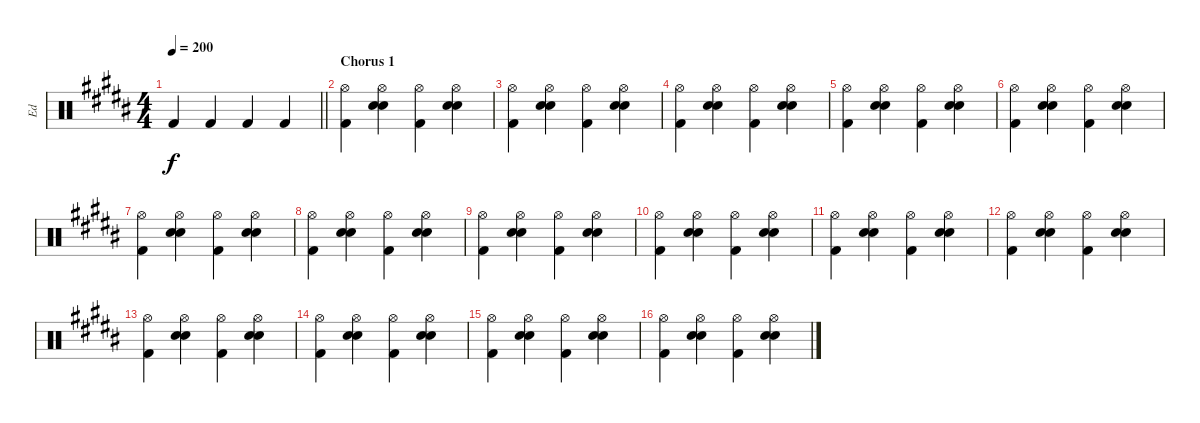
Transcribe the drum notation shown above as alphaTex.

\track ("Ed" "Ed") {instrument percussion bank 127}
\staff {score}
\articulation defaults
\ts (4 4)
\tempo 200
\clef neutral
\barLineRight lightlight
\ks g#minor "Kick (hit) 2".4{dy f} "Kick (hit) 2".4 "Kick (hit) 2".4 "Kick (hit) 2".4
|
\section ("" "Chorus 1")
("Hi-Hat (open)" "Kick (hit) 2").4 ("Hi-Hat (open)" "Electric Snare (hit)" "Electric Snare (hit)").4 ("Hi-Hat (open)" "Kick (hit) 2").4 ("Hi-Hat (open)" "Electric Snare (hit)" "Electric Snare (hit)").4 |
("Hi-Hat (open)" "Kick (hit) 2").4 ("Hi-Hat (open)" "Electric Snare (hit)" "Electric Snare (hit)").4 ("Hi-Hat (open)" "Kick (hit) 2").4 ("Hi-Hat (open)" "Electric Snare (hit)" "Electric Snare (hit)").4 |
("Hi-Hat (open)" "Kick (hit) 2").4 ("Hi-Hat (open)" "Electric Snare (hit)" "Electric Snare (hit)").4 ("Hi-Hat (open)" "Kick (hit) 2").4 ("Hi-Hat (open)" "Electric Snare (hit)" "Electric Snare (hit)").4 |
("Hi-Hat (open)" "Kick (hit) 2").4 ("Hi-Hat (open)" "Electric Snare (hit)" "Electric Snare (hit)").4 ("Hi-Hat (open)" "Kick (hit) 2").4 ("Hi-Hat (open)" "Electric Snare (hit)" "Electric Snare (hit)").4 |
("Hi-Hat (open)" "Kick (hit) 2").4 ("Hi-Hat (open)" "Electric Snare (hit)" "Electric Snare (hit)").4 ("Hi-Hat (open)" "Kick (hit) 2").4 ("Hi-Hat (open)" "Electric Snare (hit)" "Electric Snare (hit)").4 |
("Hi-Hat (open)" "Kick (hit) 2").4 ("Hi-Hat (open)" "Electric Snare (hit)" "Electric Snare (hit)").4 ("Hi-Hat (open)" "Kick (hit) 2").4 ("Hi-Hat (open)" "Electric Snare (hit)" "Electric Snare (hit)").4 |
("Hi-Hat (open)" "Kick (hit) 2").4 ("Hi-Hat (open)" "Electric Snare (hit)" "Electric Snare (hit)").4 ("Hi-Hat (open)" "Kick (hit) 2").4 ("Hi-Hat (open)" "Electric Snare (hit)" "Electric Snare (hit)").4 |
("Hi-Hat (open)" "Kick (hit) 2").4 ("Hi-Hat (open)" "Electric Snare (hit)" "Electric Snare (hit)").4 ("Hi-Hat (open)" "Kick (hit) 2").4 ("Hi-Hat (open)" "Electric Snare (hit)" "Electric Snare (hit)").4 |
("Hi-Hat (open)" "Kick (hit) 2").4 ("Hi-Hat (open)" "Electric Snare (hit)" "Electric Snare (hit)").4 ("Hi-Hat (open)" "Kick (hit) 2").4 ("Hi-Hat (open)" "Electric Snare (hit)" "Electric Snare (hit)").4 |
("Hi-Hat (open)" "Kick (hit) 2").4 ("Hi-Hat (open)" "Electric Snare (hit)" "Electric Snare (hit)").4 ("Hi-Hat (open)" "Kick (hit) 2").4 ("Hi-Hat (open)" "Electric Snare (hit)" "Electric Snare (hit)").4 |
("Hi-Hat (open)" "Kick (hit) 2").4 ("Hi-Hat (open)" "Electric Snare (hit)" "Electric Snare (hit)").4 ("Hi-Hat (open)" "Kick (hit) 2").4 ("Hi-Hat (open)" "Electric Snare (hit)" "Electric Snare (hit)").4 |
("Hi-Hat (open)" "Kick (hit) 2").4 ("Hi-Hat (open)" "Electric Snare (hit)" "Electric Snare (hit)").4 ("Hi-Hat (open)" "Kick (hit) 2").4 ("Hi-Hat (open)" "Electric Snare (hit)" "Electric Snare (hit)").4 |
("Hi-Hat (open)" "Kick (hit) 2").4 ("Hi-Hat (open)" "Electric Snare (hit)" "Electric Snare (hit)").4 ("Hi-Hat (open)" "Kick (hit) 2").4 ("Hi-Hat (open)" "Electric Snare (hit)" "Electric Snare (hit)").4 |
("Hi-Hat (open)" "Kick (hit) 2").4 ("Hi-Hat (open)" "Electric Snare (hit)" "Electric Snare (hit)").4 ("Hi-Hat (open)" "Kick (hit) 2").4 ("Hi-Hat (open)" "Electric Snare (hit)" "Electric Snare (hit)").4 |
("Hi-Hat (open)" "Kick (hit) 2").4 ("Hi-Hat (open)" "Electric Snare (hit)" "Electric Snare (hit)").4 ("Hi-Hat (open)" "Kick (hit) 2").4 ("Hi-Hat (open)" "Electric Snare (hit)" "Electric Snare (hit)").4
